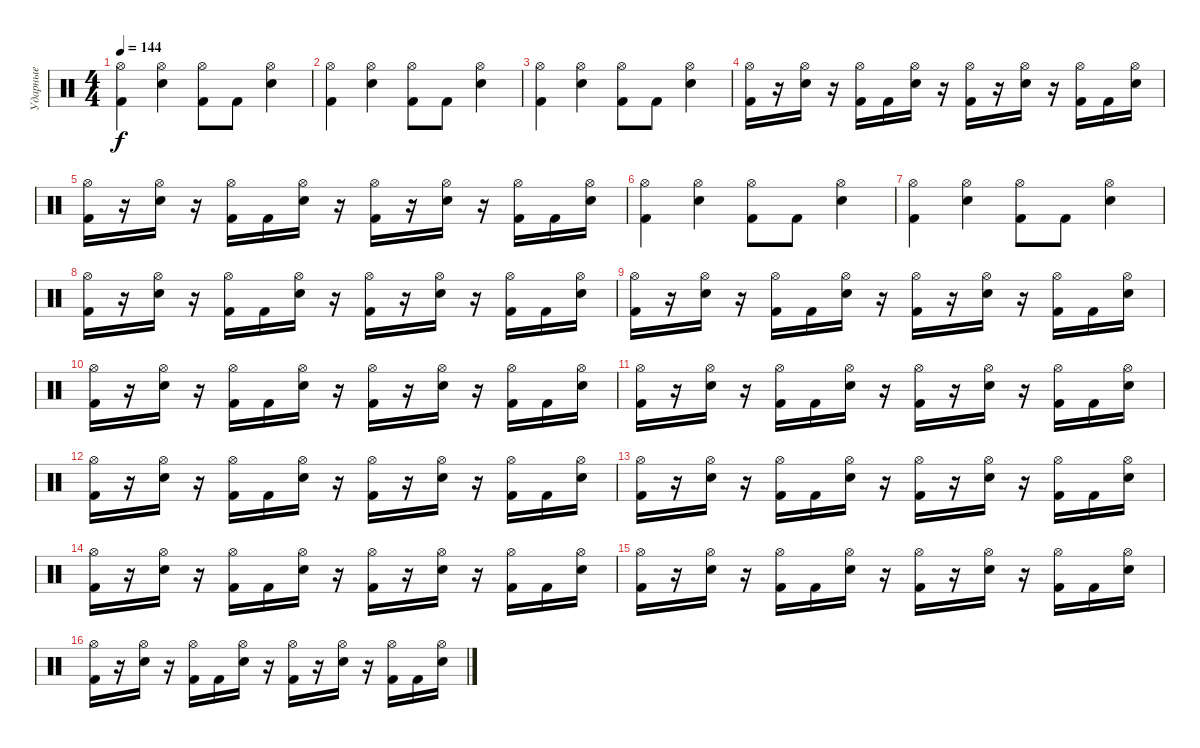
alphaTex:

\track ("Ударные" "Ударные") {instrument percussion}
\staff {score}
\articulation defaults
\ts (4 4)
\tempo 144
\clef neutral
\ks c
("Hi-Hat (open)" "Kick (hit) 2").4{dy f} ("Hi-Hat (open)" "Snare (hit) 2").4 ("Hi-Hat (open)" "Kick (hit) 2").8 "Kick (hit) 2".8 ("Hi-Hat (open)" "Snare (hit) 2").4 |
("Hi-Hat (open)" "Kick (hit) 2").4 ("Hi-Hat (open)" "Snare (hit) 2").4 ("Hi-Hat (open)" "Kick (hit) 2").8 "Kick (hit) 2".8 ("Hi-Hat (open)" "Snare (hit) 2").4 |
("Hi-Hat (open)" "Kick (hit) 2").4 ("Hi-Hat (open)" "Snare (hit) 2").4 ("Hi-Hat (open)" "Kick (hit) 2").8 "Kick (hit) 2".8 ("Hi-Hat (open)" "Snare (hit) 2").4 |
("Hi-Hat (open)" "Kick (hit) 2").16 r.16 ("Hi-Hat (open)" "Electric Snare (hit)").16 r.16 ("Hi-Hat (open)" "Kick (hit) 2").16 "Kick (hit) 2".16 ("Hi-Hat (open)" "Electric Snare (hit)").16 r.16 ("Hi-Hat (open)" "Kick (hit) 2").16 r.16 ("Hi-Hat (open)" "Electric Snare (hit)").16 r.16 ("Hi-Hat (open)" "Kick (hit) 2").16 "Kick (hit) 2".16 ("Hi-Hat (open)" "Electric Snare (hit)").16 |
("Hi-Hat (open)" "Kick (hit) 2").16 r.16 ("Hi-Hat (open)" "Electric Snare (hit)").16 r.16 ("Hi-Hat (open)" "Kick (hit) 2").16 "Kick (hit) 2".16 ("Hi-Hat (open)" "Electric Snare (hit)").16 r.16 ("Hi-Hat (open)" "Kick (hit) 2").16 r.16 ("Hi-Hat (open)" "Electric Snare (hit)").16 r.16 ("Hi-Hat (open)" "Kick (hit) 2").16 "Kick (hit) 2".16 ("Hi-Hat (open)" "Electric Snare (hit)").16 |
("Hi-Hat (open)" "Kick (hit) 2").4 ("Hi-Hat (open)" "Snare (hit) 2").4 ("Hi-Hat (open)" "Kick (hit) 2").8 "Kick (hit) 2".8 ("Hi-Hat (open)" "Snare (hit) 2").4 |
("Hi-Hat (open)" "Kick (hit) 2").4 ("Hi-Hat (open)" "Snare (hit) 2").4 ("Hi-Hat (open)" "Kick (hit) 2").8 "Kick (hit) 2".8 ("Hi-Hat (open)" "Snare (hit) 2").4 |
("Hi-Hat (open)" "Kick (hit) 2").16 r.16 ("Hi-Hat (open)" "Electric Snare (hit)").16 r.16 ("Hi-Hat (open)" "Kick (hit) 2").16 "Kick (hit) 2".16 ("Hi-Hat (open)" "Electric Snare (hit)").16 r.16 ("Hi-Hat (open)" "Kick (hit) 2").16 r.16 ("Hi-Hat (open)" "Electric Snare (hit)").16 r.16 ("Hi-Hat (open)" "Kick (hit) 2").16 "Kick (hit) 2".16 ("Hi-Hat (open)" "Electric Snare (hit)").16 |
("Hi-Hat (open)" "Kick (hit) 2").16 r.16 ("Hi-Hat (open)" "Electric Snare (hit)").16 r.16 ("Hi-Hat (open)" "Kick (hit) 2").16 "Kick (hit) 2".16 ("Hi-Hat (open)" "Electric Snare (hit)").16 r.16 ("Hi-Hat (open)" "Kick (hit) 2").16 r.16 ("Hi-Hat (open)" "Electric Snare (hit)").16 r.16 ("Hi-Hat (open)" "Kick (hit) 2").16 "Kick (hit) 2".16 ("Hi-Hat (open)" "Electric Snare (hit)").16 |
("Hi-Hat (open)" "Kick (hit) 2").16 r.16 ("Hi-Hat (open)" "Electric Snare (hit)").16 r.16 ("Hi-Hat (open)" "Kick (hit) 2").16 "Kick (hit) 2".16 ("Hi-Hat (open)" "Electric Snare (hit)").16 r.16 ("Hi-Hat (open)" "Kick (hit) 2").16 r.16 ("Hi-Hat (open)" "Electric Snare (hit)").16 r.16 ("Hi-Hat (open)" "Kick (hit) 2").16 "Kick (hit) 2".16 ("Hi-Hat (open)" "Electric Snare (hit)").16 |
("Hi-Hat (open)" "Kick (hit) 2").16 r.16 ("Hi-Hat (open)" "Electric Snare (hit)").16 r.16 ("Hi-Hat (open)" "Kick (hit) 2").16 "Kick (hit) 2".16 ("Hi-Hat (open)" "Electric Snare (hit)").16 r.16 ("Hi-Hat (open)" "Kick (hit) 2").16 r.16 ("Hi-Hat (open)" "Electric Snare (hit)").16 r.16 ("Hi-Hat (open)" "Kick (hit) 2").16 "Kick (hit) 2".16 ("Hi-Hat (open)" "Electric Snare (hit)").16 |
("Hi-Hat (open)" "Kick (hit) 2").16 r.16 ("Hi-Hat (open)" "Electric Snare (hit)").16 r.16 ("Hi-Hat (open)" "Kick (hit) 2").16 "Kick (hit) 2".16 ("Hi-Hat (open)" "Electric Snare (hit)").16 r.16 ("Hi-Hat (open)" "Kick (hit) 2").16 r.16 ("Hi-Hat (open)" "Electric Snare (hit)").16 r.16 ("Hi-Hat (open)" "Kick (hit) 2").16 "Kick (hit) 2".16 ("Hi-Hat (open)" "Electric Snare (hit)").16 |
("Hi-Hat (open)" "Kick (hit) 2").16 r.16 ("Hi-Hat (open)" "Electric Snare (hit)").16 r.16 ("Hi-Hat (open)" "Kick (hit) 2").16 "Kick (hit) 2".16 ("Hi-Hat (open)" "Electric Snare (hit)").16 r.16 ("Hi-Hat (open)" "Kick (hit) 2").16 r.16 ("Hi-Hat (open)" "Electric Snare (hit)").16 r.16 ("Hi-Hat (open)" "Kick (hit) 2").16 "Kick (hit) 2".16 ("Hi-Hat (open)" "Electric Snare (hit)").16 |
("Hi-Hat (open)" "Kick (hit) 2").16 r.16 ("Hi-Hat (open)" "Electric Snare (hit)").16 r.16 ("Hi-Hat (open)" "Kick (hit) 2").16 "Kick (hit) 2".16 ("Hi-Hat (open)" "Electric Snare (hit)").16 r.16 ("Hi-Hat (open)" "Kick (hit) 2").16 r.16 ("Hi-Hat (open)" "Electric Snare (hit)").16 r.16 ("Hi-Hat (open)" "Kick (hit) 2").16 "Kick (hit) 2".16 ("Hi-Hat (open)" "Electric Snare (hit)").16 |
("Hi-Hat (open)" "Kick (hit) 2").16 r.16 ("Hi-Hat (open)" "Electric Snare (hit)").16 r.16 ("Hi-Hat (open)" "Kick (hit) 2").16 "Kick (hit) 2".16 ("Hi-Hat (open)" "Electric Snare (hit)").16 r.16 ("Hi-Hat (open)" "Kick (hit) 2").16 r.16 ("Hi-Hat (open)" "Electric Snare (hit)").16 r.16 ("Hi-Hat (open)" "Kick (hit) 2").16 "Kick (hit) 2".16 ("Hi-Hat (open)" "Electric Snare (hit)").16 |
("Hi-Hat (open)" "Kick (hit) 2").16 r.16 ("Hi-Hat (open)" "Electric Snare (hit)").16 r.16 ("Hi-Hat (open)" "Kick (hit) 2").16 "Kick (hit) 2".16 ("Hi-Hat (open)" "Electric Snare (hit)").16 r.16 ("Hi-Hat (open)" "Kick (hit) 2").16 r.16 ("Hi-Hat (open)" "Electric Snare (hit)").16 r.16 ("Hi-Hat (open)" "Kick (hit) 2").16 "Kick (hit) 2".16 ("Hi-Hat (open)" "Electric Snare (hit)").16
